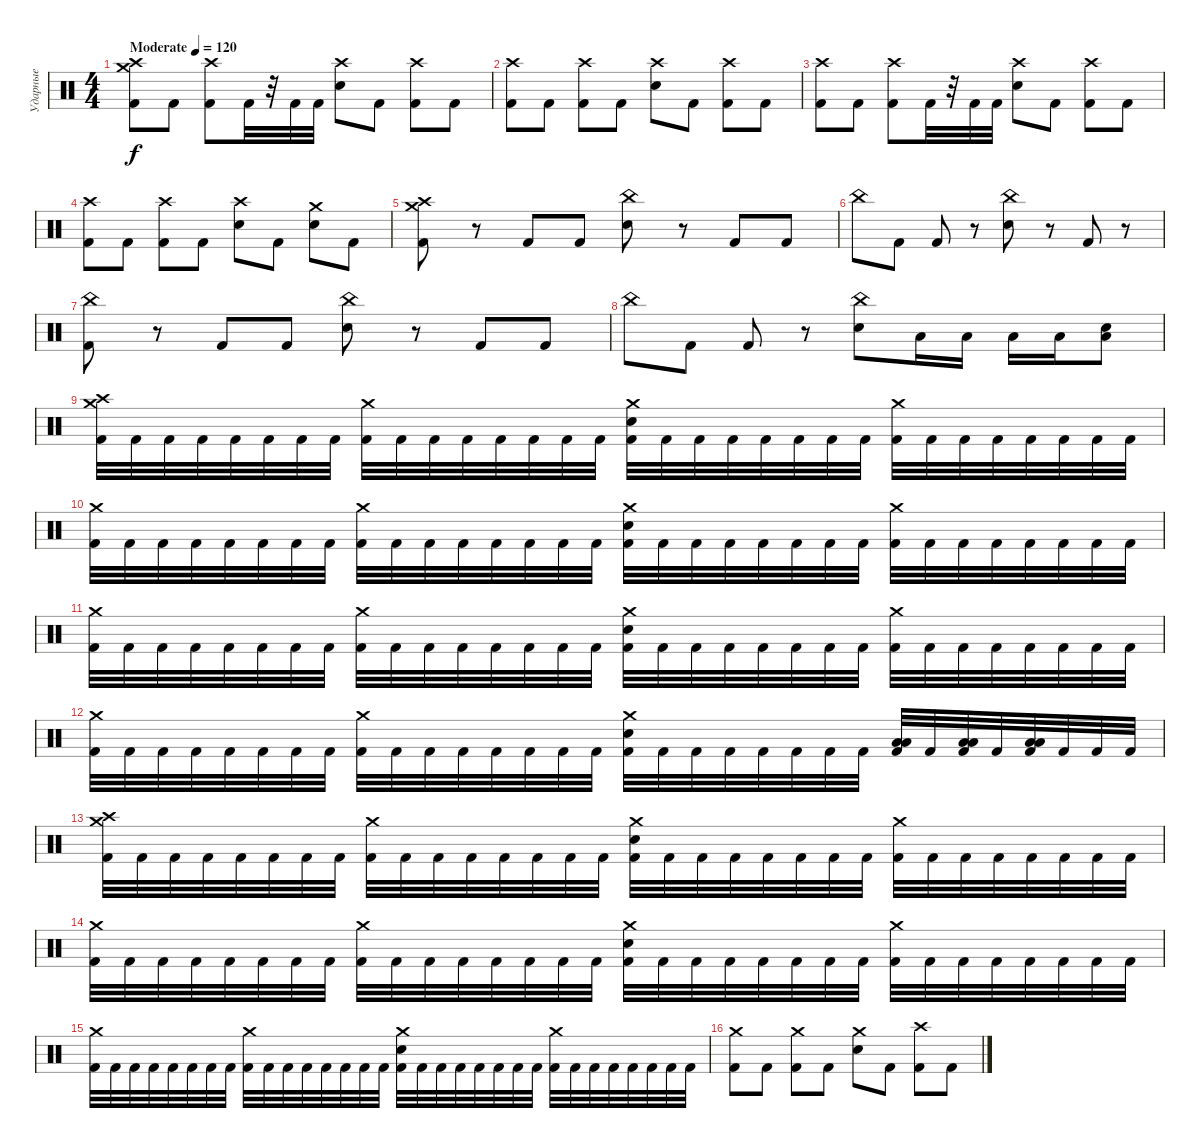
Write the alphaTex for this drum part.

\track ("Ударные" "Ударные") {instrument percussion}
\staff {score}
\articulation defaults
\ts (4 4)
\tempo (120 "Moderate")
\clef neutral
\ks c
("Crash medium (hit)" "Crash high (hit)" "Kick (hit) 2").8{dy f} "Kick (hit) 2".8 ("Crash high (hit)" "Kick (hit) 2").8 "Kick (hit) 2".32 r.32 "Kick (hit) 2".32 "Kick (hit) 2".32 ("Crash high (hit)" "Electric Snare (hit)").8 "Kick (hit) 2".8 ("Crash high (hit)" "Kick (hit) 2").8 "Kick (hit) 2".8 |
("Crash high (hit)" "Kick (hit) 2").8 "Kick (hit) 2".8 ("Crash high (hit)" "Kick (hit) 2").8 "Kick (hit) 2".8 ("Crash high (hit)" "Electric Snare (hit)").8 "Kick (hit) 2".8 ("Crash high (hit)" "Kick (hit) 2").8 "Kick (hit) 2".8 |
("Crash high (hit)" "Kick (hit) 2").8 "Kick (hit) 2".8 ("Crash high (hit)" "Kick (hit) 2").8 "Kick (hit) 2".32 r.32 "Kick (hit) 2".32 "Kick (hit) 2".32 ("Crash high (hit)" "Electric Snare (hit)").8 "Kick (hit) 2".8 ("Crash high (hit)" "Kick (hit) 2").8 "Kick (hit) 2".8 |
("Crash high (hit)" "Kick (hit) 2").8 "Kick (hit) 2".8 ("Crash high (hit)" "Kick (hit) 2").8 "Kick (hit) 2".8 ("Crash high (hit)" "Electric Snare (hit)").8 "Kick (hit) 2".8 ("Crash medium (hit)" "Electric Snare (hit)").8 "Kick (hit) 2".8 |
("Crash medium (hit)" "Crash high (hit)" "Kick (hit) 2").8 r.8 "Kick (hit) 2".8 "Kick (hit) 2".8 ("China (hit)" "Electric Snare (hit)").8 r.8 "Kick (hit) 2".8 "Kick (hit) 2".8 |
"China (hit)".8 "Kick (hit) 2".8 "Kick (hit) 2".8 r.8 ("China (hit)" "Electric Snare (hit)").8 r.8 "Kick (hit) 2".8 r.8 |
("China (hit)" "Kick (hit) 2").8 r.8 "Kick (hit) 2".8 "Kick (hit) 2".8 ("China (hit)" "Electric Snare (hit)").8 r.8 "Kick (hit) 2".8 "Kick (hit) 2".8 |
"China (hit)".8 "Kick (hit) 2".8 "Kick (hit) 2".8 r.8 ("China (hit)" "Electric Snare (hit)").8 "Low Tom (hit)".16 "Low Tom (hit)".16 "Low Floor Tom (hit)".16 "Low Floor Tom (hit)".16 ("Low Floor Tom (hit)" "Electric Snare (hit)").8 |
("Crash medium (hit)" "Crash high (hit)" "Kick (hit) 2").32 "Kick (hit) 2".32 "Kick (hit) 2".32 "Kick (hit) 2".32 "Kick (hit) 2".32 "Kick (hit) 2".32 "Kick (hit) 2".32 "Kick (hit) 2".32 ("Crash medium (hit)" "Kick (hit) 2").32 "Kick (hit) 2".32 "Kick (hit) 2".32 "Kick (hit) 2".32 "Kick (hit) 2".32 "Kick (hit) 2".32 "Kick (hit) 2".32 "Kick (hit) 2".32 ("Crash medium (hit)" "Electric Snare (hit)" "Kick (hit) 2").32 "Kick (hit) 2".32 "Kick (hit) 2".32 "Kick (hit) 2".32 "Kick (hit) 2".32 "Kick (hit) 2".32 "Kick (hit) 2".32 "Kick (hit) 2".32 ("Crash medium (hit)" "Kick (hit) 2").32 "Kick (hit) 2".32 "Kick (hit) 2".32 "Kick (hit) 2".32 "Kick (hit) 2".32 "Kick (hit) 2".32 "Kick (hit) 2".32 "Kick (hit) 2".32 |
("Crash medium (hit)" "Kick (hit) 2").32 "Kick (hit) 2".32 "Kick (hit) 2".32 "Kick (hit) 2".32 "Kick (hit) 2".32 "Kick (hit) 2".32 "Kick (hit) 2".32 "Kick (hit) 2".32 ("Crash medium (hit)" "Kick (hit) 2").32 "Kick (hit) 2".32 "Kick (hit) 2".32 "Kick (hit) 2".32 "Kick (hit) 2".32 "Kick (hit) 2".32 "Kick (hit) 2".32 "Kick (hit) 2".32 ("Crash medium (hit)" "Electric Snare (hit)" "Kick (hit) 2").32 "Kick (hit) 2".32 "Kick (hit) 2".32 "Kick (hit) 2".32 "Kick (hit) 2".32 "Kick (hit) 2".32 "Kick (hit) 2".32 "Kick (hit) 2".32 ("Crash medium (hit)" "Kick (hit) 2").32 "Kick (hit) 2".32 "Kick (hit) 2".32 "Kick (hit) 2".32 "Kick (hit) 2".32 "Kick (hit) 2".32 "Kick (hit) 2".32 "Kick (hit) 2".32 |
("Crash medium (hit)" "Kick (hit) 2").32 "Kick (hit) 2".32 "Kick (hit) 2".32 "Kick (hit) 2".32 "Kick (hit) 2".32 "Kick (hit) 2".32 "Kick (hit) 2".32 "Kick (hit) 2".32 ("Crash medium (hit)" "Kick (hit) 2").32 "Kick (hit) 2".32 "Kick (hit) 2".32 "Kick (hit) 2".32 "Kick (hit) 2".32 "Kick (hit) 2".32 "Kick (hit) 2".32 "Kick (hit) 2".32 ("Crash medium (hit)" "Electric Snare (hit)" "Kick (hit) 2").32 "Kick (hit) 2".32 "Kick (hit) 2".32 "Kick (hit) 2".32 "Kick (hit) 2".32 "Kick (hit) 2".32 "Kick (hit) 2".32 "Kick (hit) 2".32 ("Crash medium (hit)" "Kick (hit) 2").32 "Kick (hit) 2".32 "Kick (hit) 2".32 "Kick (hit) 2".32 "Kick (hit) 2".32 "Kick (hit) 2".32 "Kick (hit) 2".32 "Kick (hit) 2".32 |
("Crash medium (hit)" "Kick (hit) 2").32 "Kick (hit) 2".32 "Kick (hit) 2".32 "Kick (hit) 2".32 "Kick (hit) 2".32 "Kick (hit) 2".32 "Kick (hit) 2".32 "Kick (hit) 2".32 ("Crash medium (hit)" "Kick (hit) 2").32 "Kick (hit) 2".32 "Kick (hit) 2".32 "Kick (hit) 2".32 "Kick (hit) 2".32 "Kick (hit) 2".32 "Kick (hit) 2".32 "Kick (hit) 2".32 ("Crash medium (hit)" "Electric Snare (hit)" "Kick (hit) 2").32 "Kick (hit) 2".32 "Kick (hit) 2".32 "Kick (hit) 2".32 "Kick (hit) 2".32 "Kick (hit) 2".32 "Kick (hit) 2".32 "Kick (hit) 2".32 ("Low Tom (hit)" "Low Floor Tom (hit)" "Kick (hit) 2").32 "Kick (hit) 2".32 ("Low Tom (hit)" "Low Floor Tom (hit)" "Kick (hit) 2").32 "Kick (hit) 2".32 ("Low Tom (hit)" "Low Floor Tom (hit)" "Kick (hit) 2").32 "Kick (hit) 2".32 "Kick (hit) 2".32 "Kick (hit) 2".32 |
("Crash medium (hit)" "Crash high (hit)" "Kick (hit) 2").32 "Kick (hit) 2".32 "Kick (hit) 2".32 "Kick (hit) 2".32 "Kick (hit) 2".32 "Kick (hit) 2".32 "Kick (hit) 2".32 "Kick (hit) 2".32 ("Crash medium (hit)" "Kick (hit) 2").32 "Kick (hit) 2".32 "Kick (hit) 2".32 "Kick (hit) 2".32 "Kick (hit) 2".32 "Kick (hit) 2".32 "Kick (hit) 2".32 "Kick (hit) 2".32 ("Crash medium (hit)" "Electric Snare (hit)" "Kick (hit) 2").32 "Kick (hit) 2".32 "Kick (hit) 2".32 "Kick (hit) 2".32 "Kick (hit) 2".32 "Kick (hit) 2".32 "Kick (hit) 2".32 "Kick (hit) 2".32 ("Crash medium (hit)" "Kick (hit) 2").32 "Kick (hit) 2".32 "Kick (hit) 2".32 "Kick (hit) 2".32 "Kick (hit) 2".32 "Kick (hit) 2".32 "Kick (hit) 2".32 "Kick (hit) 2".32 |
("Crash medium (hit)" "Kick (hit) 2").32 "Kick (hit) 2".32 "Kick (hit) 2".32 "Kick (hit) 2".32 "Kick (hit) 2".32 "Kick (hit) 2".32 "Kick (hit) 2".32 "Kick (hit) 2".32 ("Crash medium (hit)" "Kick (hit) 2").32 "Kick (hit) 2".32 "Kick (hit) 2".32 "Kick (hit) 2".32 "Kick (hit) 2".32 "Kick (hit) 2".32 "Kick (hit) 2".32 "Kick (hit) 2".32 ("Crash medium (hit)" "Electric Snare (hit)" "Kick (hit) 2").32 "Kick (hit) 2".32 "Kick (hit) 2".32 "Kick (hit) 2".32 "Kick (hit) 2".32 "Kick (hit) 2".32 "Kick (hit) 2".32 "Kick (hit) 2".32 ("Crash medium (hit)" "Kick (hit) 2").32 "Kick (hit) 2".32 "Kick (hit) 2".32 "Kick (hit) 2".32 "Kick (hit) 2".32 "Kick (hit) 2".32 "Kick (hit) 2".32 "Kick (hit) 2".32 |
("Crash medium (hit)" "Kick (hit) 2").32 "Kick (hit) 2".32 "Kick (hit) 2".32 "Kick (hit) 2".32 "Kick (hit) 2".32 "Kick (hit) 2".32 "Kick (hit) 2".32 "Kick (hit) 2".32 ("Crash medium (hit)" "Kick (hit) 2").32 "Kick (hit) 2".32 "Kick (hit) 2".32 "Kick (hit) 2".32 "Kick (hit) 2".32 "Kick (hit) 2".32 "Kick (hit) 2".32 "Kick (hit) 2".32 ("Crash medium (hit)" "Electric Snare (hit)" "Kick (hit) 2").32 "Kick (hit) 2".32 "Kick (hit) 2".32 "Kick (hit) 2".32 "Kick (hit) 2".32 "Kick (hit) 2".32 "Kick (hit) 2".32 "Kick (hit) 2".32 ("Crash medium (hit)" "Kick (hit) 2").32 "Kick (hit) 2".32 "Kick (hit) 2".32 "Kick (hit) 2".32 "Kick (hit) 2".32 "Kick (hit) 2".32 "Kick (hit) 2".32 "Kick (hit) 2".32 |
("Crash medium (hit)" "Kick (hit) 2").8 "Kick (hit) 2".8 ("Crash medium (hit)" "Kick (hit) 2").8 "Kick (hit) 2".8 ("Crash medium (hit)" "Electric Snare (hit)").8 "Kick (hit) 2".8 ("Crash high (hit)" "Kick (hit) 2").8 "Kick (hit) 2".8
